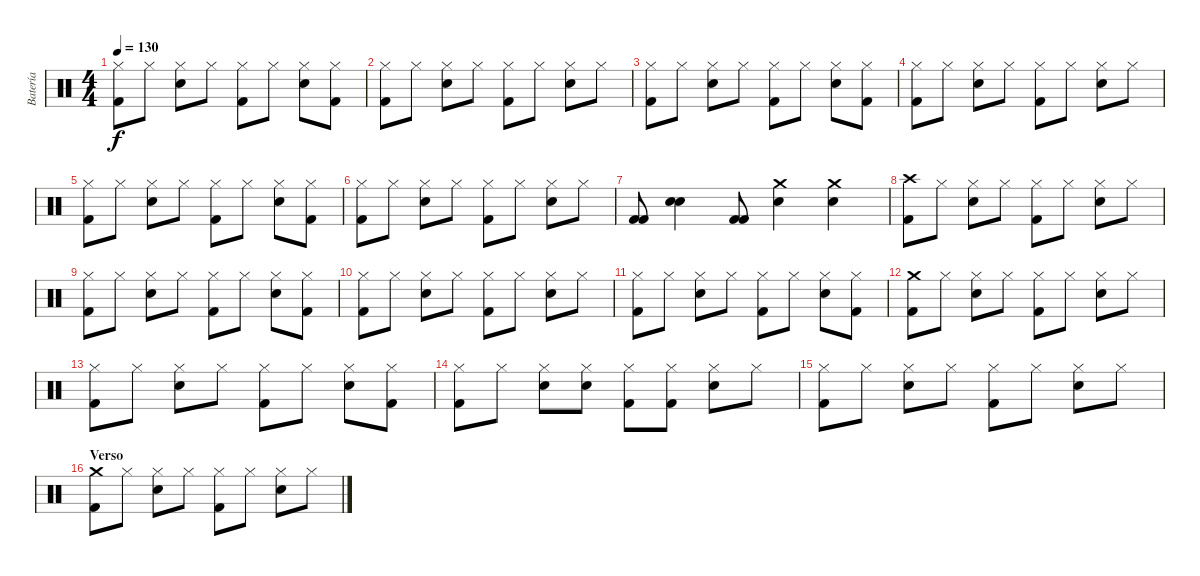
\track ("Batería" "Batería") {instrument percussion}
\staff {score}
\articulation defaults
\ts (4 4)
\tempo 130
\clef neutral
\ks c
("Hi-Hat (closed)" "Kick (hit) 2").8{dy f} "Hi-Hat (closed)".8 ("Hi-Hat (closed)" "Snare (hit) 2").8 "Hi-Hat (closed)".8 ("Hi-Hat (closed)" "Kick (hit) 2").8 "Hi-Hat (closed)".8 ("Hi-Hat (closed)" "Snare (hit) 2").8 ("Hi-Hat (closed)" "Kick (hit) 2").8 |
("Hi-Hat (closed)" "Kick (hit) 2").8 "Hi-Hat (closed)".8 ("Hi-Hat (closed)" "Snare (hit) 2").8 "Hi-Hat (closed)".8 ("Hi-Hat (closed)" "Kick (hit) 2").8 "Hi-Hat (closed)".8 ("Hi-Hat (closed)" "Snare (hit) 2").8 "Hi-Hat (closed)".8 |
("Hi-Hat (closed)" "Kick (hit) 2").8 "Hi-Hat (closed)".8 ("Hi-Hat (closed)" "Snare (hit) 2").8 "Hi-Hat (closed)".8 ("Hi-Hat (closed)" "Kick (hit) 2").8 "Hi-Hat (closed)".8 ("Hi-Hat (closed)" "Snare (hit) 2").8 ("Hi-Hat (closed)" "Kick (hit) 2").8 |
("Hi-Hat (closed)" "Kick (hit) 2").8 "Hi-Hat (closed)".8 ("Hi-Hat (closed)" "Snare (hit) 2").8 "Hi-Hat (closed)".8 ("Hi-Hat (closed)" "Kick (hit) 2").8 "Hi-Hat (closed)".8 ("Hi-Hat (closed)" "Snare (hit) 2").8 "Hi-Hat (closed)".8 |
("Hi-Hat (closed)" "Kick (hit) 2").8 "Hi-Hat (closed)".8 ("Hi-Hat (closed)" "Snare (hit) 2").8 "Hi-Hat (closed)".8 ("Hi-Hat (closed)" "Kick (hit) 2").8 "Hi-Hat (closed)".8 ("Hi-Hat (closed)" "Snare (hit) 2").8 ("Hi-Hat (closed)" "Kick (hit) 2").8 |
("Hi-Hat (closed)" "Kick (hit) 2").8 "Hi-Hat (closed)".8 ("Hi-Hat (closed)" "Snare (hit) 2").8 "Hi-Hat (closed)".8 ("Hi-Hat (closed)" "Kick (hit) 2").8 "Hi-Hat (closed)".8 ("Hi-Hat (closed)" "Snare (hit) 2").8 "Hi-Hat (closed)".8 |
("Kick (hit) 2" "Kick (hit) 2").8 ("Snare (hit) 2" "Snare (hit) 2").4 ("Kick (hit) 2" "Kick (hit) 2").8 ("Crash medium (hit)" "Snare (hit) 2").4 ("Crash medium (hit)" "Snare (hit) 2").4 |
("Crash high (hit)" "Kick (hit) 2").8 "Hi-Hat (closed)".8 ("Hi-Hat (closed)" "Snare (hit) 2").8 "Hi-Hat (closed)".8 ("Hi-Hat (closed)" "Kick (hit) 2").8 "Hi-Hat (closed)".8 ("Hi-Hat (closed)" "Snare (hit) 2").8 "Hi-Hat (closed)".8 |
("Hi-Hat (closed)" "Kick (hit) 2").8 "Hi-Hat (closed)".8 ("Hi-Hat (closed)" "Snare (hit) 2").8 "Hi-Hat (closed)".8 ("Hi-Hat (closed)" "Kick (hit) 2").8 "Hi-Hat (closed)".8 ("Hi-Hat (closed)" "Snare (hit) 2").8 ("Hi-Hat (closed)" "Kick (hit) 2").8 |
("Hi-Hat (closed)" "Kick (hit) 2").8 "Hi-Hat (closed)".8 ("Hi-Hat (closed)" "Snare (hit) 2").8 "Hi-Hat (closed)".8 ("Hi-Hat (closed)" "Kick (hit) 2").8 "Hi-Hat (closed)".8 ("Hi-Hat (closed)" "Snare (hit) 2").8 "Hi-Hat (closed)".8 |
("Hi-Hat (closed)" "Kick (hit) 2").8 "Hi-Hat (closed)".8 ("Hi-Hat (closed)" "Snare (hit) 2").8 "Hi-Hat (closed)".8 ("Hi-Hat (closed)" "Kick (hit) 2").8 "Hi-Hat (closed)".8 ("Hi-Hat (closed)" "Snare (hit) 2").8 ("Hi-Hat (closed)" "Kick (hit) 2").8 |
("Crash medium (hit)" "Kick (hit) 2").8 "Hi-Hat (closed)".8 ("Hi-Hat (closed)" "Snare (hit) 2").8 "Hi-Hat (closed)".8 ("Hi-Hat (closed)" "Kick (hit) 2").8 "Hi-Hat (closed)".8 ("Hi-Hat (closed)" "Snare (hit) 2").8 "Hi-Hat (closed)".8 |
("Hi-Hat (closed)" "Kick (hit) 2").8 "Hi-Hat (closed)".8 ("Hi-Hat (closed)" "Snare (hit) 2").8 "Hi-Hat (closed)".8 ("Hi-Hat (closed)" "Kick (hit) 2").8 "Hi-Hat (closed)".8 ("Hi-Hat (closed)" "Snare (hit) 2").8 ("Hi-Hat (closed)" "Kick (hit) 2").8 |
("Hi-Hat (closed)" "Kick (hit) 2").8 "Hi-Hat (closed)".8 ("Hi-Hat (closed)" "Snare (hit) 2").8 ("Hi-Hat (closed)" "Snare (hit) 2").8 ("Hi-Hat (closed)" "Kick (hit) 2").8 ("Hi-Hat (closed)" "Kick (hit) 2").8 ("Hi-Hat (closed)" "Snare (hit) 2").8 "Hi-Hat (closed)".8 |
("Hi-Hat (closed)" "Kick (hit) 2").8 "Hi-Hat (closed)".8 ("Hi-Hat (closed)" "Snare (hit) 2").8 "Hi-Hat (closed)".8 ("Hi-Hat (closed)" "Kick (hit) 2").8 "Hi-Hat (closed)".8 ("Hi-Hat (closed)" "Snare (hit) 2").8 "Hi-Hat (closed)".8 |
\section ("" "Verso")
("Crash medium (hit)" "Kick (hit) 2").8 "Hi-Hat (closed)".8 ("Hi-Hat (closed)" "Snare (hit) 2").8 "Hi-Hat (closed)".8 ("Hi-Hat (closed)" "Kick (hit) 2").8 "Hi-Hat (closed)".8 ("Hi-Hat (closed)" "Snare (hit) 2").8 "Hi-Hat (closed)".8
